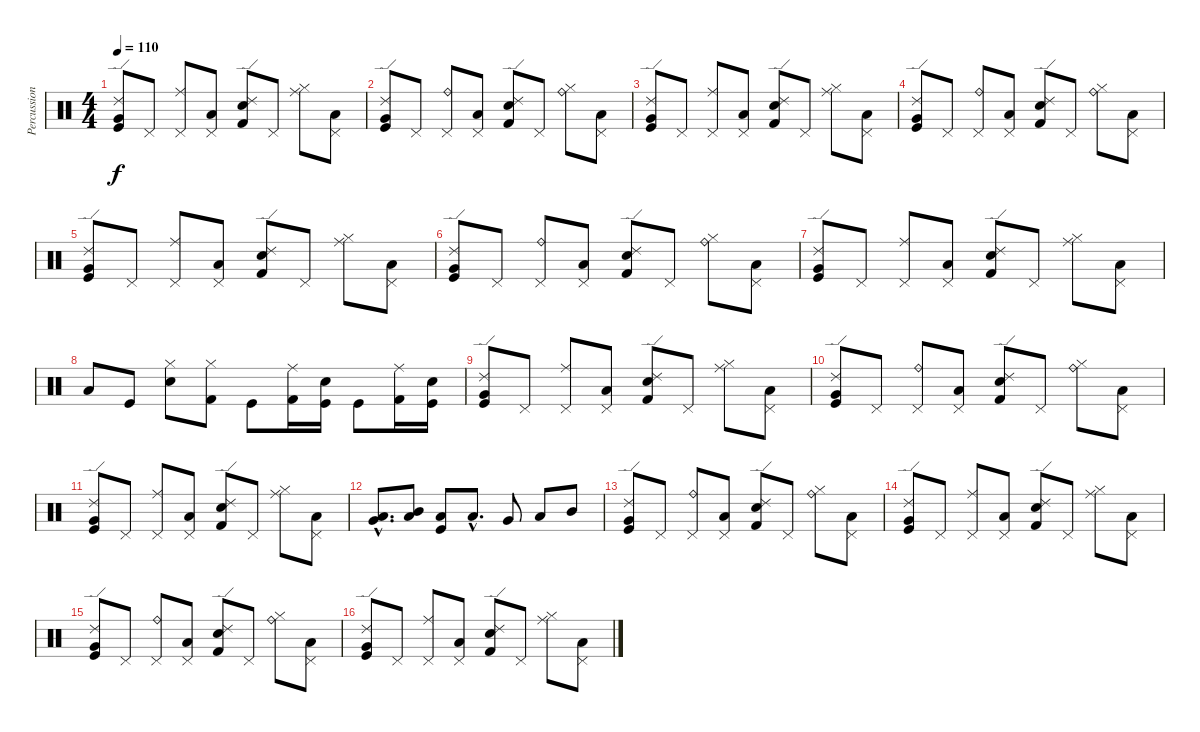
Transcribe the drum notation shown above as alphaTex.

\track ("Percussions" "Percussion") {instrument percussion}
\staff {score}
\articulation defaults
\ts (4 4)
\tempo 110
\clef neutral
\ks c
("Ride (edge) 2" "Very Low Tom (hit)" "Kick (hit)").8{dy f} "Pedal Hi-Hat (hit)".8 ("Ride (middle)" "Pedal Hi-Hat (hit)").8 ("Pedal Hi-Hat (hit)" "Low Tom (hit)").8 ("Ride (edge) 2" "Kick (hit) 2" "Snare (hit) 2").8 "Pedal Hi-Hat (hit)".8 ("Hi-Hat (closed)" "Ride (middle)").8 ("Pedal Hi-Hat (hit)" "Low Tom (hit)").8 |
("Ride (edge) 2" "Very Low Tom (hit)" "Kick (hit)").8 "Pedal Hi-Hat (hit)".8 ("Ride (bell)" "Pedal Hi-Hat (hit)").8 ("Pedal Hi-Hat (hit)" "Low Tom (hit)").8 ("Ride (edge) 2" "Kick (hit) 2" "Snare (hit) 2").8 "Pedal Hi-Hat (hit)".8 ("Hi-Hat (closed)" "Ride (bell)").8 ("Pedal Hi-Hat (hit)" "Low Tom (hit)").8 |
("Ride (edge) 2" "Very Low Tom (hit)" "Kick (hit)").8 "Pedal Hi-Hat (hit)".8 ("Ride (middle)" "Pedal Hi-Hat (hit)").8 ("Pedal Hi-Hat (hit)" "Low Tom (hit)").8 ("Ride (edge) 2" "Kick (hit) 2" "Snare (hit) 2").8 "Pedal Hi-Hat (hit)".8 ("Hi-Hat (closed)" "Ride (middle)").8 ("Pedal Hi-Hat (hit)" "Low Tom (hit)").8 |
("Ride (edge) 2" "Very Low Tom (hit)" "Kick (hit)").8 "Pedal Hi-Hat (hit)".8 ("Ride (bell)" "Pedal Hi-Hat (hit)").8 ("Pedal Hi-Hat (hit)" "Low Tom (hit)").8 ("Ride (edge) 2" "Kick (hit) 2" "Snare (hit) 2").8 "Pedal Hi-Hat (hit)".8 ("Hi-Hat (closed)" "Ride (bell)").8 ("Pedal Hi-Hat (hit)" "Low Tom (hit)").8 |
("Ride (edge) 2" "Very Low Tom (hit)" "Kick (hit)").8 "Pedal Hi-Hat (hit)".8 ("Ride (middle)" "Pedal Hi-Hat (hit)").8 ("Pedal Hi-Hat (hit)" "Low Tom (hit)").8 ("Ride (edge) 2" "Kick (hit) 2" "Snare (hit) 2").8 "Pedal Hi-Hat (hit)".8 ("Hi-Hat (closed)" "Ride (middle)").8 ("Pedal Hi-Hat (hit)" "Low Tom (hit)").8 |
("Ride (edge) 2" "Very Low Tom (hit)" "Kick (hit)").8 "Pedal Hi-Hat (hit)".8 ("Ride (bell)" "Pedal Hi-Hat (hit)").8 ("Pedal Hi-Hat (hit)" "Low Tom (hit)").8 ("Ride (edge) 2" "Kick (hit) 2" "Snare (hit) 2").8 "Pedal Hi-Hat (hit)".8 ("Hi-Hat (closed)" "Ride (bell)").8 ("Pedal Hi-Hat (hit)" "Low Tom (hit)").8 |
("Ride (edge) 2" "Very Low Tom (hit)" "Kick (hit)").8 "Pedal Hi-Hat (hit)".8 ("Ride (middle)" "Pedal Hi-Hat (hit)").8 ("Pedal Hi-Hat (hit)" "Low Tom (hit)").8 ("Ride (edge) 2" "Kick (hit) 2" "Snare (hit) 2").8 "Pedal Hi-Hat (hit)".8 ("Hi-Hat (closed)" "Ride (middle)").8 ("Pedal Hi-Hat (hit)" "Low Tom (hit)").8 |
"Low Tom (hit)".8 "Kick (hit)".8 ("Snare (hit) 2" "Hi-Hat (closed)").8 ("Kick (hit) 2" "Hi-Hat (closed)").8 "Kick (hit)".8 ("Kick (hit) 2" "Ride (middle)").16 ("Kick (hit)" "Snare (hit) 2").16 "Kick (hit)".8 ("Kick (hit) 2" "Ride (middle)").16 ("Kick (hit)" "Snare (hit) 2").16 |
("Ride (edge) 2" "Very Low Tom (hit)" "Kick (hit)").8 "Pedal Hi-Hat (hit)".8 ("Ride (middle)" "Pedal Hi-Hat (hit)").8 ("Pedal Hi-Hat (hit)" "Low Tom (hit)").8 ("Ride (edge) 2" "Kick (hit) 2" "Snare (hit) 2").8 "Pedal Hi-Hat (hit)".8 ("Hi-Hat (closed)" "Ride (middle)").8 ("Pedal Hi-Hat (hit)" "Low Tom (hit)").8 |
("Ride (edge) 2" "Very Low Tom (hit)" "Kick (hit)").8 "Pedal Hi-Hat (hit)".8 ("Ride (bell)" "Pedal Hi-Hat (hit)").8 ("Pedal Hi-Hat (hit)" "Low Tom (hit)").8 ("Ride (edge) 2" "Kick (hit) 2" "Snare (hit) 2").8 "Pedal Hi-Hat (hit)".8 ("Hi-Hat (closed)" "Ride (bell)").8 ("Pedal Hi-Hat (hit)" "Low Tom (hit)").8 |
("Ride (edge) 2" "Very Low Tom (hit)" "Kick (hit)").8 "Pedal Hi-Hat (hit)".8 ("Ride (middle)" "Pedal Hi-Hat (hit)").8 ("Pedal Hi-Hat (hit)" "Low Tom (hit)").8 ("Ride (edge) 2" "Kick (hit) 2" "Snare (hit) 2").8 "Pedal Hi-Hat (hit)".8 ("Hi-Hat (closed)" "Ride (middle)").8 ("Pedal Hi-Hat (hit)" "Low Tom (hit)").8 |
("Low Tom (hit)"{hac} "Very Low Tom (hit)"{hac}).8{d} ("Mid Tom (hit)" "Low Tom (hit)").8 ("Low Tom (hit)" "Kick (hit)").8 "Low Floor Tom (hit)"{hac}.8{d} "Very Low Tom (hit)".8 "Low Tom (hit)".8 "Mid Tom (hit)".8 |
("Ride (edge) 2" "Very Low Tom (hit)" "Kick (hit)").8 "Pedal Hi-Hat (hit)".8 ("Ride (bell)" "Pedal Hi-Hat (hit)").8 ("Pedal Hi-Hat (hit)" "Low Tom (hit)").8 ("Ride (edge) 2" "Kick (hit) 2" "Snare (hit) 2").8 "Pedal Hi-Hat (hit)".8 ("Hi-Hat (closed)" "Ride (bell)").8 ("Pedal Hi-Hat (hit)" "Low Tom (hit)").8 |
("Ride (edge) 2" "Very Low Tom (hit)" "Kick (hit)").8 "Pedal Hi-Hat (hit)".8 ("Ride (middle)" "Pedal Hi-Hat (hit)").8 ("Pedal Hi-Hat (hit)" "Low Tom (hit)").8 ("Ride (edge) 2" "Kick (hit) 2" "Snare (hit) 2").8 "Pedal Hi-Hat (hit)".8 ("Hi-Hat (closed)" "Ride (middle)").8 ("Pedal Hi-Hat (hit)" "Low Tom (hit)").8 |
("Ride (edge) 2" "Very Low Tom (hit)" "Kick (hit)").8 "Pedal Hi-Hat (hit)".8 ("Ride (bell)" "Pedal Hi-Hat (hit)").8 ("Pedal Hi-Hat (hit)" "Low Tom (hit)").8 ("Ride (edge) 2" "Kick (hit) 2" "Snare (hit) 2").8 "Pedal Hi-Hat (hit)".8 ("Hi-Hat (closed)" "Ride (bell)").8 ("Pedal Hi-Hat (hit)" "Low Tom (hit)").8 |
("Ride (edge) 2" "Very Low Tom (hit)" "Kick (hit)").8 "Pedal Hi-Hat (hit)".8 ("Ride (middle)" "Pedal Hi-Hat (hit)").8 ("Pedal Hi-Hat (hit)" "Low Tom (hit)").8 ("Ride (edge) 2" "Kick (hit) 2" "Snare (hit) 2").8 "Pedal Hi-Hat (hit)".8 ("Hi-Hat (closed)" "Ride (middle)").8 ("Pedal Hi-Hat (hit)" "Low Tom (hit)").8
